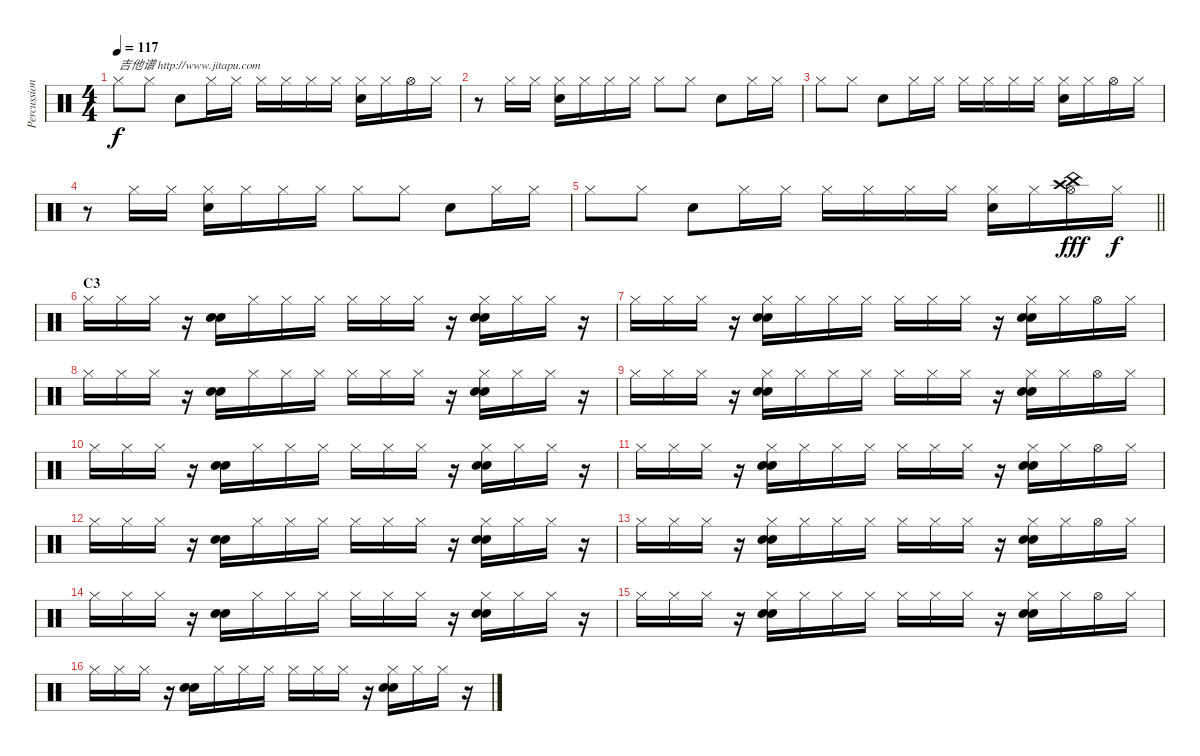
\track ("Percussions" "Percussion") {instrument percussion}
\staff {score}
\articulation defaults
\ts (4 4)
\tempo 117
\clef neutral
\ks c "Hi-Hat (closed)".8{txt "吉他谱 http://www.jitapu.com" dy f} "Hi-Hat (closed)".8 "Electric Snare (hit)".8 "Hi-Hat (closed)".16 "Hi-Hat (closed)".16 "Hi-Hat (closed)".16 "Hi-Hat (closed)".16 "Hi-Hat (closed)".16 "Hi-Hat (closed)".16
("Hi-Hat (closed)" "Electric Snare (hit)").16 "Hi-Hat (closed)".16 "Hi-Hat (open)".16 "Hi-Hat (closed)".16 |
r.8 "Hi-Hat (closed)".16 "Hi-Hat (closed)".16 ("Hi-Hat (closed)" "Electric Snare (hit)").16 "Hi-Hat (closed)".16 "Hi-Hat (closed)".16 "Hi-Hat (closed)".16 "Hi-Hat (closed)".8 "Hi-Hat (closed)".8 "Electric Snare (hit)".8 "Hi-Hat (closed)".16 "Hi-Hat (closed)".16 |
"Hi-Hat (closed)".8 "Hi-Hat (closed)".8 "Electric Snare (hit)".8 "Hi-Hat (closed)".16 "Hi-Hat (closed)".16 "Hi-Hat (closed)".16 "Hi-Hat (closed)".16 "Hi-Hat (closed)".16 "Hi-Hat (closed)".16 ("Hi-Hat (closed)" "Electric Snare (hit)").16 "Hi-Hat (closed)".16 "Hi-Hat (open)".16 "Hi-Hat (closed)".16 |
r.8 "Hi-Hat (closed)".16 "Hi-Hat (closed)".16 ("Hi-Hat (closed)" "Electric Snare (hit)").16 "Hi-Hat (closed)".16 "Hi-Hat (closed)".16 "Hi-Hat (closed)".16 "Hi-Hat (closed)".8 "Hi-Hat (closed)".8 "Electric Snare (hit)".8 "Hi-Hat (closed)".16 "Hi-Hat (closed)".16 |
\barLineRight lightlight "Hi-Hat (closed)".8 "Hi-Hat (closed)".8 "Electric Snare (hit)".8 "Hi-Hat (closed)".16 "Hi-Hat (closed)".16 "Hi-Hat (closed)".16 "Hi-Hat (closed)".16 "Hi-Hat (closed)".16 "Hi-Hat (closed)".16
("Hi-Hat (closed)" "Electric Snare (hit)").16 "Hi-Hat (closed)".16 ("Hi-Hat (open)" "China (hit)" "Crash high (hit)").16{dy fff} "Hi-Hat (closed)".16{dy f} |
\section ("" "C3")
"Hi-Hat (closed)".16 "Hi-Hat (closed)".16 "Hi-Hat (closed)".16 r.16 ("Electric Snare (hit)" "Hand Clap (hit)").16 "Hi-Hat (closed)".16 "Hi-Hat (closed)".16 "Hi-Hat (closed)".16 "Hi-Hat (closed)".16 "Hi-Hat (closed)".16 "Hi-Hat (closed)".16 r.16 ("Hi-Hat (closed)" "Electric Snare (hit)" "Hand Clap (hit)").16 "Hi-Hat (closed)".16 "Hi-Hat (closed)".16 r.16 |
"Hi-Hat (closed)".16 "Hi-Hat (closed)".16 "Hi-Hat (closed)".16 r.16 ("Hi-Hat (closed)" "Electric Snare (hit)" "Hand Clap (hit)").16 "Hi-Hat (closed)".16 "Hi-Hat (closed)".16 "Hi-Hat (closed)".16 "Hi-Hat (closed)".16 "Hi-Hat (closed)".16 "Hi-Hat (closed)".16 r.16 ("Hi-Hat (closed)" "Hand Clap (hit)" "Electric Snare (hit)").16 "Hi-Hat (closed)".16 "Hi-Hat (open)".16 "Hi-Hat (closed)".16 |
"Hi-Hat (closed)".16 "Hi-Hat (closed)".16 "Hi-Hat (closed)".16 r.16 ("Electric Snare (hit)" "Hand Clap (hit)").16 "Hi-Hat (closed)".16 "Hi-Hat (closed)".16 "Hi-Hat (closed)".16 "Hi-Hat (closed)".16 "Hi-Hat (closed)".16 "Hi-Hat (closed)".16 r.16 ("Hi-Hat (closed)" "Electric Snare (hit)" "Hand Clap (hit)").16 "Hi-Hat (closed)".16 "Hi-Hat (closed)".16 r.16 |
"Hi-Hat (closed)".16 "Hi-Hat (closed)".16 "Hi-Hat (closed)".16 r.16 ("Hi-Hat (closed)" "Electric Snare (hit)" "Hand Clap (hit)").16 "Hi-Hat (closed)".16 "Hi-Hat (closed)".16 "Hi-Hat (closed)".16 "Hi-Hat (closed)".16 "Hi-Hat (closed)".16 "Hi-Hat (closed)".16 r.16 ("Hi-Hat (closed)" "Hand Clap (hit)" "Electric Snare (hit)").16 "Hi-Hat (closed)".16 "Hi-Hat (open)".16 "Hi-Hat (closed)".16 |
"Hi-Hat (closed)".16 "Hi-Hat (closed)".16 "Hi-Hat (closed)".16 r.16 ("Electric Snare (hit)" "Hand Clap (hit)").16 "Hi-Hat (closed)".16 "Hi-Hat (closed)".16 "Hi-Hat (closed)".16 "Hi-Hat (closed)".16 "Hi-Hat (closed)".16 "Hi-Hat (closed)".16 r.16 ("Hi-Hat (closed)" "Electric Snare (hit)" "Hand Clap (hit)").16 "Hi-Hat (closed)".16 "Hi-Hat (closed)".16 r.16 |
"Hi-Hat (closed)".16 "Hi-Hat (closed)".16 "Hi-Hat (closed)".16 r.16 ("Hi-Hat (closed)" "Electric Snare (hit)" "Hand Clap (hit)").16 "Hi-Hat (closed)".16 "Hi-Hat (closed)".16 "Hi-Hat (closed)".16 "Hi-Hat (closed)".16 "Hi-Hat (closed)".16 "Hi-Hat (closed)".16 r.16 ("Hi-Hat (closed)" "Hand Clap (hit)" "Electric Snare (hit)").16 "Hi-Hat (closed)".16 "Hi-Hat (open)".16 "Hi-Hat (closed)".16 |
"Hi-Hat (closed)".16 "Hi-Hat (closed)".16 "Hi-Hat (closed)".16 r.16 ("Electric Snare (hit)" "Hand Clap (hit)").16 "Hi-Hat (closed)".16 "Hi-Hat (closed)".16 "Hi-Hat (closed)".16 "Hi-Hat (closed)".16 "Hi-Hat (closed)".16 "Hi-Hat (closed)".16 r.16 ("Hi-Hat (closed)" "Electric Snare (hit)" "Hand Clap (hit)").16 "Hi-Hat (closed)".16 "Hi-Hat (closed)".16 r.16 |
"Hi-Hat (closed)".16 "Hi-Hat (closed)".16 "Hi-Hat (closed)".16 r.16 ("Hi-Hat (closed)" "Electric Snare (hit)" "Hand Clap (hit)").16 "Hi-Hat (closed)".16 "Hi-Hat (closed)".16 "Hi-Hat (closed)".16 "Hi-Hat (closed)".16 "Hi-Hat (closed)".16 "Hi-Hat (closed)".16 r.16 ("Hi-Hat (closed)" "Hand Clap (hit)" "Electric Snare (hit)").16 "Hi-Hat (closed)".16 "Hi-Hat (open)".16 "Hi-Hat (closed)".16 |
"Hi-Hat (closed)".16 "Hi-Hat (closed)".16 "Hi-Hat (closed)".16 r.16 ("Electric Snare (hit)" "Hand Clap (hit)").16 "Hi-Hat (closed)".16 "Hi-Hat (closed)".16 "Hi-Hat (closed)".16 "Hi-Hat (closed)".16 "Hi-Hat (closed)".16 "Hi-Hat (closed)".16 r.16 ("Hi-Hat (closed)" "Electric Snare (hit)" "Hand Clap (hit)").16 "Hi-Hat (closed)".16 "Hi-Hat (closed)".16 r.16 |
"Hi-Hat (closed)".16 "Hi-Hat (closed)".16 "Hi-Hat (closed)".16 r.16 ("Hi-Hat (closed)" "Electric Snare (hit)" "Hand Clap (hit)").16 "Hi-Hat (closed)".16 "Hi-Hat (closed)".16 "Hi-Hat (closed)".16 "Hi-Hat (closed)".16 "Hi-Hat (closed)".16 "Hi-Hat (closed)".16 r.16 ("Hi-Hat (closed)" "Hand Clap (hit)" "Electric Snare (hit)").16 "Hi-Hat (closed)".16 "Hi-Hat (open)".16 "Hi-Hat (closed)".16 |
"Hi-Hat (closed)".16 "Hi-Hat (closed)".16 "Hi-Hat (closed)".16 r.16 ("Electric Snare (hit)" "Hand Clap (hit)").16 "Hi-Hat (closed)".16 "Hi-Hat (closed)".16 "Hi-Hat (closed)".16 "Hi-Hat (closed)".16 "Hi-Hat (closed)".16 "Hi-Hat (closed)".16 r.16 ("Hi-Hat (closed)" "Electric Snare (hit)" "Hand Clap (hit)").16 "Hi-Hat (closed)".16 "Hi-Hat (closed)".16 r.16
